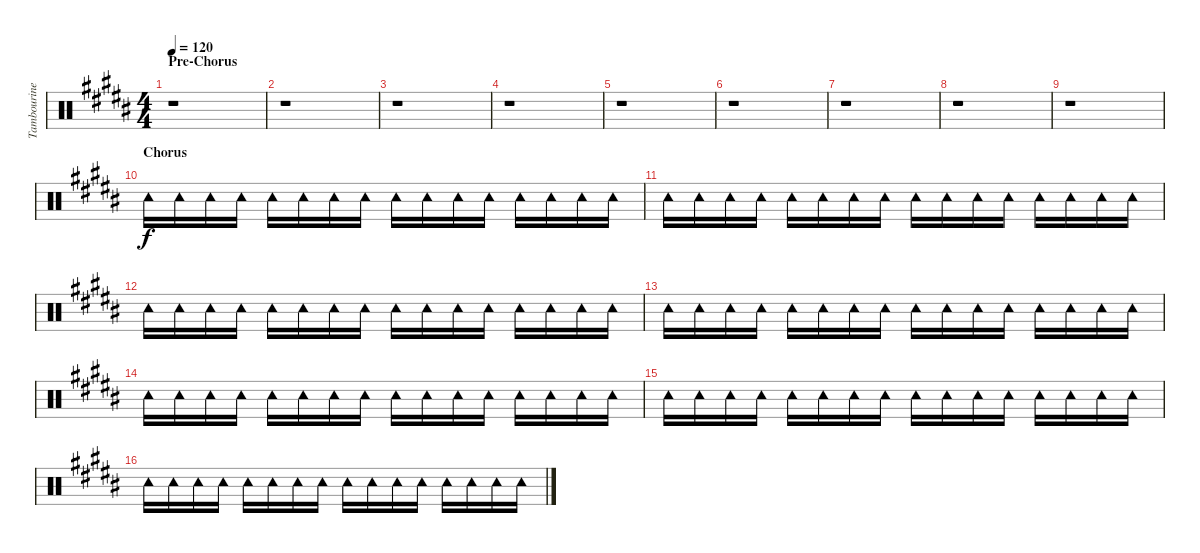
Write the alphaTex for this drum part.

\track ("Tambourine" "Tambourine") {instrument percussion}
\staff {score}
\articulation defaults
\ts (4 4)
\section ("" "Pre-Chorus")
\tempo 120
\clef neutral
\ks b
r.1{dy f} |
r.1 |
r.1 |
r.1 |
r.1 |
r.1 |
r.1 |
r.1 |
r.1 |
\section ("" "Chorus")
"Tambourine (hit)".16 "Tambourine (hit)".16 "Tambourine (hit)".16 "Tambourine (hit)".16 "Tambourine (hit)".16 "Tambourine (hit)".16 "Tambourine (hit)".16 "Tambourine (hit)".16 "Tambourine (hit)".16 "Tambourine (hit)".16 "Tambourine (hit)".16 "Tambourine (hit)".16 "Tambourine (hit)".16 "Tambourine (hit)".16 "Tambourine (hit)".16 "Tambourine (hit)".16 |
"Tambourine (hit)".16 "Tambourine (hit)".16 "Tambourine (hit)".16 "Tambourine (hit)".16 "Tambourine (hit)".16 "Tambourine (hit)".16 "Tambourine (hit)".16 "Tambourine (hit)".16 "Tambourine (hit)".16 "Tambourine (hit)".16 "Tambourine (hit)".16 "Tambourine (hit)".16 "Tambourine (hit)".16 "Tambourine (hit)".16 "Tambourine (hit)".16 "Tambourine (hit)".16 |
"Tambourine (hit)".16 "Tambourine (hit)".16 "Tambourine (hit)".16 "Tambourine (hit)".16 "Tambourine (hit)".16 "Tambourine (hit)".16 "Tambourine (hit)".16 "Tambourine (hit)".16 "Tambourine (hit)".16 "Tambourine (hit)".16 "Tambourine (hit)".16 "Tambourine (hit)".16 "Tambourine (hit)".16 "Tambourine (hit)".16 "Tambourine (hit)".16 "Tambourine (hit)".16 |
"Tambourine (hit)".16 "Tambourine (hit)".16 "Tambourine (hit)".16 "Tambourine (hit)".16 "Tambourine (hit)".16 "Tambourine (hit)".16 "Tambourine (hit)".16 "Tambourine (hit)".16 "Tambourine (hit)".16 "Tambourine (hit)".16 "Tambourine (hit)".16 "Tambourine (hit)".16 "Tambourine (hit)".16 "Tambourine (hit)".16 "Tambourine (hit)".16 "Tambourine (hit)".16 |
"Tambourine (hit)".16 "Tambourine (hit)".16 "Tambourine (hit)".16 "Tambourine (hit)".16 "Tambourine (hit)".16 "Tambourine (hit)".16 "Tambourine (hit)".16 "Tambourine (hit)".16 "Tambourine (hit)".16 "Tambourine (hit)".16 "Tambourine (hit)".16 "Tambourine (hit)".16 "Tambourine (hit)".16 "Tambourine (hit)".16 "Tambourine (hit)".16 "Tambourine (hit)".16 |
"Tambourine (hit)".16 "Tambourine (hit)".16 "Tambourine (hit)".16 "Tambourine (hit)".16 "Tambourine (hit)".16 "Tambourine (hit)".16 "Tambourine (hit)".16 "Tambourine (hit)".16 "Tambourine (hit)".16 "Tambourine (hit)".16 "Tambourine (hit)".16 "Tambourine (hit)".16 "Tambourine (hit)".16 "Tambourine (hit)".16 "Tambourine (hit)".16 "Tambourine (hit)".16 |
"Tambourine (hit)".16 "Tambourine (hit)".16 "Tambourine (hit)".16 "Tambourine (hit)".16 "Tambourine (hit)".16 "Tambourine (hit)".16 "Tambourine (hit)".16 "Tambourine (hit)".16 "Tambourine (hit)".16 "Tambourine (hit)".16 "Tambourine (hit)".16 "Tambourine (hit)".16 "Tambourine (hit)".16 "Tambourine (hit)".16 "Tambourine (hit)".16 "Tambourine (hit)".16
